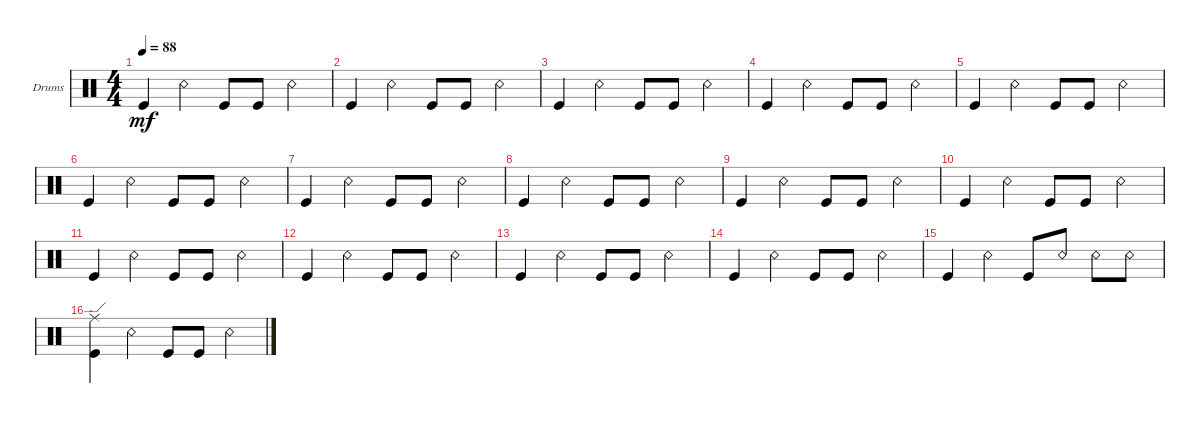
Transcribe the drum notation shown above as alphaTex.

\bracketExtendMode groupsimilarinstruments
\firstSystemTrackNameOrientation horizontal
\otherSystemsTrackNameOrientation horizontal
\track ("Drumkit" "Drums") {instrument percussion}
\staff {score}
\articulation defaults
\ts (4 4)
\tempo 88
\clef neutral
\scale
0.333333
\ks c "Kick (hit)".4{dy mf} "Snare (rim shot)".4 "Kick (hit)".8 "Kick (hit)".8 "Snare (rim shot)".4
|
\scale
0.333333 "Kick (hit)".4 "Snare (rim shot)".4 "Kick (hit)".8 "Kick (hit)".8 "Snare (rim shot)".4 |
\scale
0.333333 "Kick (hit)".4 "Snare (rim shot)".4 "Kick (hit)".8 "Kick (hit)".8 "Snare (rim shot)".4 |
\scale
0.333333 "Kick (hit)".4 "Snare (rim shot)".4 "Kick (hit)".8 "Kick (hit)".8 "Snare (rim shot)".4 |
\scale
0.333333 "Kick (hit)".4 "Snare (rim shot)".4 "Kick (hit)".8 "Kick (hit)".8 "Snare (rim shot)".4 |
\scale
0.333333 "Kick (hit)".4 "Snare (rim shot)".4 "Kick (hit)".8 "Kick (hit)".8 "Snare (rim shot)".4 |
\scale
0.333333 "Kick (hit)".4 "Snare (rim shot)".4 "Kick (hit)".8 "Kick (hit)".8 "Snare (rim shot)".4 |
\scale
0.333333 "Kick (hit)".4 "Snare (rim shot)".4 "Kick (hit)".8 "Kick (hit)".8 "Snare (rim shot)".4 |
\scale
0.333333 "Kick (hit)".4 "Snare (rim shot)".4 "Kick (hit)".8 "Kick (hit)".8 "Snare (rim shot)".4 |
\scale
0.333333 "Kick (hit)".4 "Snare (rim shot)".4 "Kick (hit)".8 "Kick (hit)".8 "Snare (rim shot)".4 |
\scale
0.333333 "Kick (hit)".4 "Snare (rim shot)".4 "Kick (hit)".8 "Kick (hit)".8 "Snare (rim shot)".4 |
\scale
0.333333 "Kick (hit)".4 "Snare (rim shot)".4 "Kick (hit)".8 "Kick (hit)".8 "Snare (rim shot)".4 |
\scale
0.333333 "Kick (hit)".4 "Snare (rim shot)".4 "Kick (hit)".8 "Kick (hit)".8 "Snare (rim shot)".4 |
\scale
0.333333 "Kick (hit)".4 "Snare (rim shot)".4 "Kick (hit)".8 "Kick (hit)".8 "Snare (rim shot)".4 |
\scale
0.333333 "Kick (hit)".4 "Snare (rim shot)".4 "Kick (hit)".8 "Snare (rim shot)".8 "Snare (rim shot)".8 "Snare (rim shot)".8 |
\scale
0.333333 ("Kick (hit)" "Ride (edge)").4 "Snare (rim shot)".4 "Kick (hit)".8 "Kick (hit)".8 "Snare (rim shot)".4
